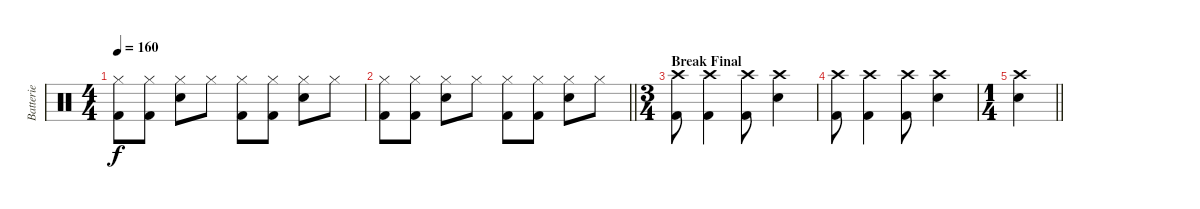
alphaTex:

\track ("Batterie" "Batterie") {instrument percussion}
\staff {score}
\articulation defaults
\ts (4 4)
\tempo 160
\clef neutral
\ks c
("Hi-Hat (closed)" "Kick (hit) 2").8{dy f} ("Hi-Hat (closed)" "Kick (hit) 2").8 ("Hi-Hat (closed)" "Electric Snare (hit)").8 "Hi-Hat (closed)".8 ("Hi-Hat (closed)" "Kick (hit) 2").8 ("Hi-Hat (closed)" "Kick (hit) 2").8 ("Hi-Hat (closed)" "Electric Snare (hit)").8 "Hi-Hat (closed)".8 |
\barLineRight lightlight
("Hi-Hat (closed)" "Kick (hit) 2").8 ("Hi-Hat (closed)" "Kick (hit) 2").8 ("Hi-Hat (closed)" "Electric Snare (hit)").8 "Hi-Hat (closed)".8 ("Hi-Hat (closed)" "Kick (hit) 2").8 ("Hi-Hat (closed)" "Kick (hit) 2").8 ("Hi-Hat (closed)" "Electric Snare (hit)").8 "Hi-Hat (closed)".8 |
\ts (3 4)
\section ("" "Break Final")
("Crash high (hit)" "Kick (hit) 2").8 ("Crash high (hit)" "Kick (hit) 2").4 ("Crash high (hit)" "Kick (hit) 2").8 ("Crash high (hit)" "Snare (hit) 2").4 |
("Crash high (hit)" "Kick (hit) 2").8 ("Crash high (hit)" "Kick (hit) 2").4 ("Crash high (hit)" "Kick (hit) 2").8 ("Crash high (hit)" "Snare (hit) 2").4 |
\ts (1 4)
\barLineRight lightlight
("Crash high (hit)" "Snare (hit) 2").4
